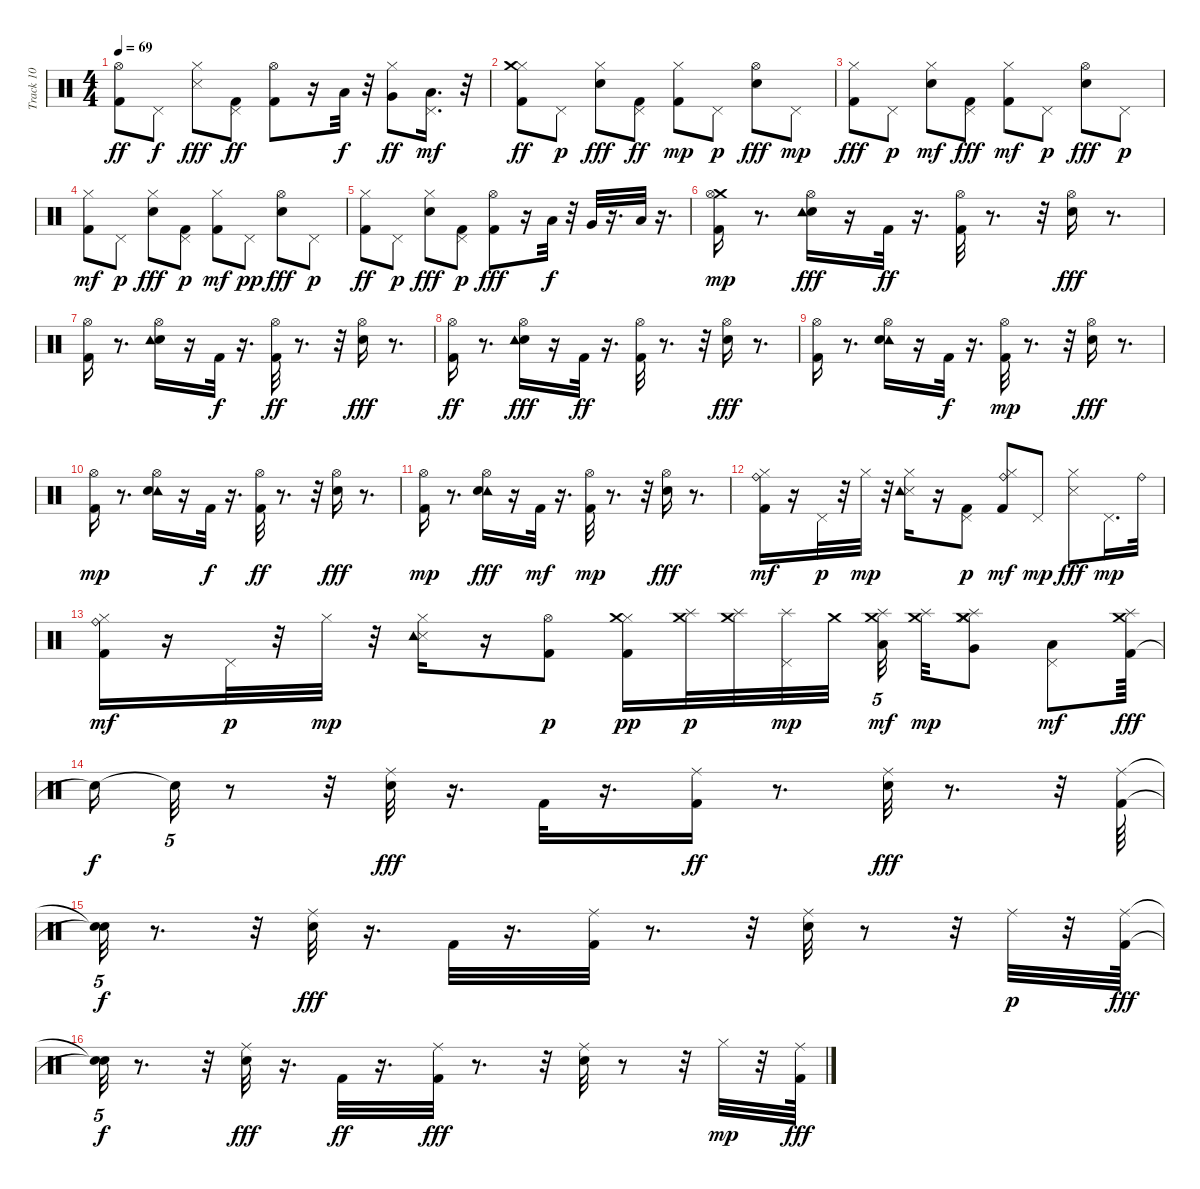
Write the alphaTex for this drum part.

\track ("Track 10" "Track 10") {instrument percussion}
\staff {score}
\articulation defaults
\ts (4 4)
\tempo 69
\clef neutral
\ks c
("Kick (hit) 2" "Hi-Hat (open)").8{dy ff} "Pedal Hi-Hat (hit)".8{dy f} ("Hi-Hat (closed)" "Snare (side stick) 3").8{dy fff} ("Pedal Hi-Hat (hit)" "Kick (hit) 2").8{dy ff} ("Kick (hit) 2" "Hi-Hat (open)").8 r.16 "Low Tom (hit)".32{dy f} r.32 ("Hi-Hat (closed)" "Very Low Tom (hit)").8{dy ff} ("Pedal Hi-Hat (hit)" "Low Floor Tom (hit)").16{d dy mf} r.32 |
("Hi-Hat (closed)" "Kick (hit) 2" "Crash medium (hit)").8{dy ff} "Pedal Hi-Hat (hit)".8{dy p} ("Hi-Hat (closed)" "Snare (hit) 2").8{dy fff} ("Pedal Hi-Hat (hit)" "Kick (hit) 2").8{dy ff} ("Kick (hit) 2" "Hi-Hat (closed)").8{dy mp} "Pedal Hi-Hat (hit)".8{dy p} ("Hi-Hat (open)" "Snare (hit) 2").8{dy fff} "Pedal Hi-Hat (hit)".8{dy mp} |
("Hi-Hat (closed)" "Kick (hit) 2").8{dy fff} "Pedal Hi-Hat (hit)".8{dy p} ("Snare (hit) 2" "Hi-Hat (closed)").8{dy mf} ("Pedal Hi-Hat (hit)" "Kick (hit) 2").8{dy fff} ("Kick (hit) 2" "Hi-Hat (closed)").8{dy mf} "Pedal Hi-Hat (hit)".8{dy p} ("Hi-Hat (open)" "Snare (hit) 2").8{dy fff} "Pedal Hi-Hat (hit)".8{dy p} |
("Kick (hit) 2" "Hi-Hat (closed)").8{dy mf} "Pedal Hi-Hat (hit)".8{dy p} ("Hi-Hat (closed)" "Snare (hit) 2").8{dy fff} ("Kick (hit) 2" "Pedal Hi-Hat (hit)").8{dy p} ("Kick (hit) 2" "Hi-Hat (closed)").8{dy mf} "Pedal Hi-Hat (hit)".8{dy pp} ("Hi-Hat (open)" "Snare (hit) 2").8{dy fff} "Pedal Hi-Hat (hit)".8{dy p} |
("Hi-Hat (closed)" "Kick (hit) 2").8{dy ff} "Pedal Hi-Hat (hit)".8{dy p} ("Hi-Hat (closed)" "Snare (hit) 2").8{dy fff} ("Kick (hit) 2" "Pedal Hi-Hat (hit)").8{dy p} ("Hi-Hat (open)" "Kick (hit) 2").8{dy fff} r.16 "Low Tom (hit)".32{dy f} r.32 "Very Low Tom (hit)".32 r.16{d} "Low Floor Tom (hit)".32 r.16{d} |
("Crash medium (hit)" "Kick (hit) 2" "Hi-Hat (open)").16{dy mp} r.8{d} ("Hi-Hat (open)" "Snare (hit) 2" "Tambourine (hit)").16{dy fff} r.16 "Kick (hit) 2".32{dy ff} r.16{d} ("Hi-Hat (open)" "Kick (hit) 2").32 r.8{d} r.32 ("Hi-Hat (open)" "Snare (hit) 2").16{dy fff} r.8{d} |
("Hi-Hat (open)" "Kick (hit) 2").16 r.8{d} ("Hi-Hat (open)" "Snare (hit) 2" "Tambourine (hit)").16 r.16 "Kick (hit) 2".32{dy f} r.16{d} ("Hi-Hat (open)" "Kick (hit) 2").32{dy ff} r.8{d} r.32 ("Hi-Hat (open)" "Snare (hit) 2").16{dy fff} r.8{d} |
("Hi-Hat (open)" "Kick (hit) 2").16{dy ff} r.8{d} ("Snare (hit) 2" "Hi-Hat (open)" "Tambourine (hit)").16{dy fff} r.16 "Kick (hit) 2".32{dy ff} r.16{d} ("Hi-Hat (open)" "Kick (hit) 2").32 r.8{d} r.32 ("Hi-Hat (open)" "Snare (hit) 2").16{dy fff} r.8{d} |
("Hi-Hat (open)" "Kick (hit) 2").16 r.8{d} ("Hi-Hat (open)" "Tambourine (hit)" "Snare (hit) 2").16 r.16 "Kick (hit) 2".32{dy f} r.16{d} ("Kick (hit) 2" "Hi-Hat (open)").32{dy mp} r.8{d} r.32 ("Hi-Hat (open)" "Snare (hit) 2").16{dy fff} r.8{d} |
("Kick (hit) 2" "Hi-Hat (open)").16{dy mp} r.8{d} ("Tambourine (hit)" "Snare (hit) 2" "Hi-Hat (open)").16 r.16 "Kick (hit) 2".32{dy f} r.16{d} ("Hi-Hat (open)" "Kick (hit) 2").32{dy ff} r.8{d} r.32 ("Hi-Hat (open)" "Snare (hit) 2").16{dy fff} r.8{d} |
("Kick (hit) 2" "Hi-Hat (open)").16{dy mp} r.8{d} ("Hi-Hat (open)" "Tambourine (hit)" "Snare (hit) 2").16{dy fff} r.16 "Kick (hit) 2".32{dy mf} r.16{d} ("Kick (hit) 2" "Hi-Hat (open)").32{dy mp} r.8{d} r.32 ("Hi-Hat (open)" "Snare (hit) 2").16{dy fff} r.8{d} |
("Kick (hit) 2" "Hi-Hat (closed)" "Ride (bell)").16{dy mf} r.16 "Pedal Hi-Hat (hit)".32{dy p} r.32 "Hi-Hat (closed)".32{dy mp} r.32 ("Snare (side stick) 3" "Tambourine (hit)" "Hi-Hat (closed)").16 r.16 ("Kick (hit) 2" "Pedal Hi-Hat (hit)").8{dy p} ("Kick (hit) 2" "Hi-Hat (closed)" "Ride (bell)").8{dy mf} "Pedal Hi-Hat (hit)".8{dy mp} ("Hi-Hat (closed)" "Snare (side stick) 3").8{dy fff} "Pedal Hi-Hat (hit)".16{d dy mp} "Ride (bell)".32 |
("Kick (hit) 2" "Hi-Hat (closed)" "Ride (bell)").16{dy mf} r.16 "Pedal Hi-Hat (hit)".32{dy p} r.32 "Hi-Hat (closed)".32{dy mp} r.32 ("Snare (side stick) 3" "Tambourine (hit)" "Hi-Hat (closed)").16 r.16 ("Kick (hit) 2" "Hi-Hat (open)").8{dy p} ("Kick (hit) 2" "Hi-Hat (closed)" "Crash medium (hit)").16{dy pp} ("Splash (hit)" "Crash medium (hit)").32{dy p} ("Splash (hit)" "Crash medium (hit)").32 ("Pedal Hi-Hat (hit)" "Splash (hit)").32{dy mp} "Crash medium (hit)".32{beam splitsecondary} ("Crash medium (hit)" "Splash (hit)" "Low Tom (hit)").32{tu (5 4) dy mf beam splitsecondary} ("Crash medium (hit)" "Splash (hit)").32{dy mp} ("Crash medium (hit)" "Splash (hit)" "Hi-Hat (closed)" "Very Low Tom (hit)" "Hi-Hat (closed)").8 ("Pedal Hi-Hat (hit)" "Low Floor Tom (hit)").8{dy mf} ("Kick (hit) 2" "Splash (hit)" "Crash medium (hit)").64{dy fff} |
"Snare (hit)"{t}.16{dy f} "Snare (hit)"{t}.32{tu (5 4)} r.8 r.32 ("Ride (middle)" "Snare (hit) 2").32{dy fff} r.16{d} "Kick (hit) 2".32 r.16{d} ("Kick (hit) 2" "Ride (middle)").16{dy ff} r.8{d} ("Snare (hit) 2" "Ride (middle)").32{dy fff} r.8{d} r.32 ("Ride (middle)" "Kick (hit) 2").64 |
("Snare (hit)"{t} "Snare (hit)"{t}).32{tu (5 4) dy f} r.8{d} r.32 ("Ride (middle)" "Snare (hit) 2").32{dy fff} r.16{d} "Kick (hit) 2".32 r.16{d} ("Ride (middle)" "Kick (hit) 2").32 r.8{d} r.32 ("Ride (middle)" "Snare (hit) 2").32 r.8 r.32 "Ride (middle)".32{dy p} r.32 ("Ride (middle)" "Kick (hit) 2").64{dy fff} |
("Snare (hit)"{t} "Snare (hit)"{t}).32{tu (5 4) dy f} r.8{d} r.32 ("Ride (middle)" "Snare (hit) 2").32{dy fff} r.16{d} "Kick (hit) 2".32{dy ff} r.16{d} ("Kick (hit) 2" "Ride (middle)").32{dy fff} r.8{d} r.32 ("Snare (hit) 2" "Ride (middle)").32 r.8 r.32 "Hi-Hat (closed)".32{dy mp} r.32 ("Ride (middle)" "Kick (hit) 2").64{dy fff}
